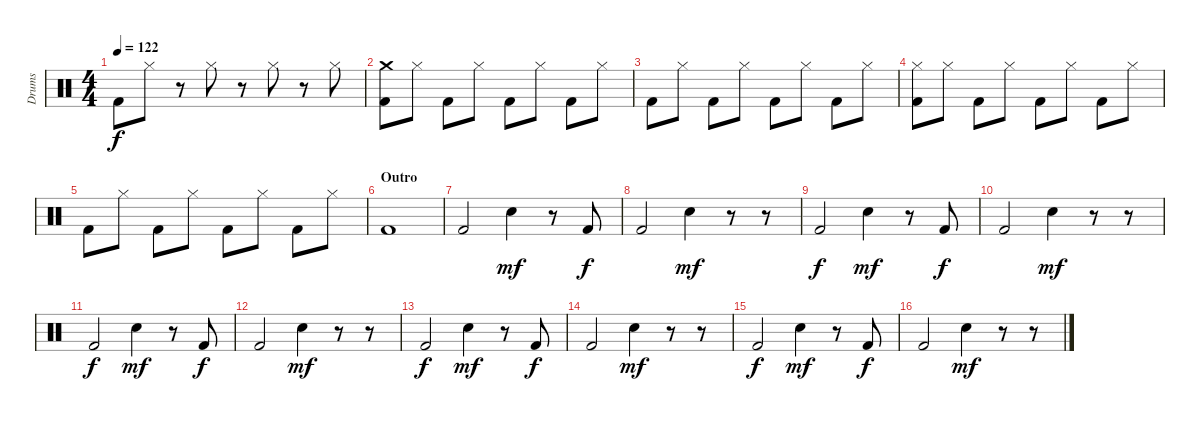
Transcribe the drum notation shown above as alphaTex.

\track ("Drums" "Drums") {instrument percussion}
\staff {score}
\articulation defaults
\ts (4 4)
\tempo 122
\clef neutral
\ks c "Kick (hit) 2".8{dy f} "Hi-Hat (closed)".8
r.8 "Hi-Hat (closed)".8 r.8 "Hi-Hat (closed)".8 r.8 "Hi-Hat (closed)".8 |
("Crash medium (hit)" "Kick (hit) 2").8 "Hi-Hat (closed)".8 "Kick (hit) 2".8 "Hi-Hat (closed)".8 "Kick (hit) 2".8 "Hi-Hat (closed)".8 "Kick (hit) 2".8 "Hi-Hat (closed)".8 |
"Kick (hit) 2".8 "Hi-Hat (closed)".8 "Kick (hit) 2".8 "Hi-Hat (closed)".8 "Kick (hit) 2".8 "Hi-Hat (closed)".8 "Kick (hit) 2".8 "Hi-Hat (closed)".8 |
("Hi-Hat (closed)" "Kick (hit) 2").8 "Hi-Hat (closed)".8 "Kick (hit) 2".8 "Hi-Hat (closed)".8 "Kick (hit) 2".8 "Hi-Hat (closed)".8 "Kick (hit) 2".8 "Hi-Hat (closed)".8 |
"Kick (hit) 2".8 "Hi-Hat (closed)".8 "Kick (hit) 2".8 "Hi-Hat (closed)".8 "Kick (hit) 2".8 "Hi-Hat (closed)".8 "Kick (hit) 2".8 "Hi-Hat (closed)".8 |
\section ("" "Outro")
"Kick (hit) 2".1 |
"Kick (hit) 2".2 "Electric Snare (hit)".4{dy mf} r.8 "Kick (hit) 2".8{dy f} |
"Kick (hit) 2".2 "Electric Snare (hit)".4{dy mf} r.8 r.8 |
"Kick (hit) 2".2{dy f} "Electric Snare (hit)".4{dy mf} r.8 "Kick (hit) 2".8{dy f} |
"Kick (hit) 2".2 "Electric Snare (hit)".4{dy mf} r.8 r.8 |
"Kick (hit) 2".2{dy f} "Electric Snare (hit)".4{dy mf} r.8 "Kick (hit) 2".8{dy f} |
"Kick (hit) 2".2 "Electric Snare (hit)".4{dy mf} r.8 r.8 |
"Kick (hit) 2".2{dy f} "Electric Snare (hit)".4{dy mf} r.8 "Kick (hit) 2".8{dy f} |
"Kick (hit) 2".2 "Electric Snare (hit)".4{dy mf} r.8 r.8 |
"Kick (hit) 2".2{dy f} "Electric Snare (hit)".4{dy mf} r.8 "Kick (hit) 2".8{dy f} |
"Kick (hit) 2".2 "Electric Snare (hit)".4{dy mf} r.8 r.8
